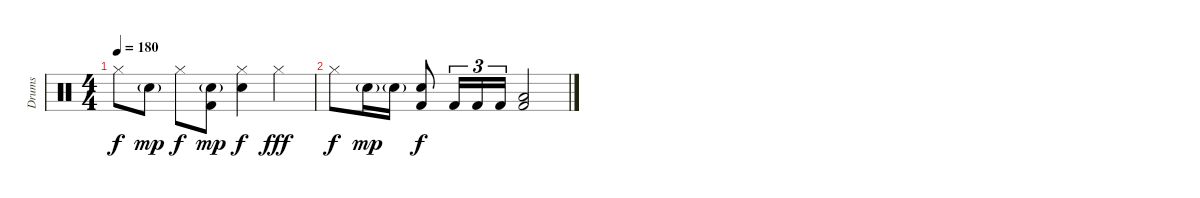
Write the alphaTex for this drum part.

\track ("Drums" "Drums") {instrument percussion}
\staff {score}
\articulation defaults
\ts (4 4)
\tempo 180
\clef neutral
\ks c "Hi-Hat (closed)".8{dy f} "Snare (hit) 2"{g}.8{dy mp} "Hi-Hat (closed)".8{dy f}
("Snare (hit) 2"{g} "Kick (hit) 2").8{dy mp} ("Hi-Hat (closed)" "Snare (hit) 2").4{dy f} "Hi-Hat (closed)".4{dy fff} |
"Hi-Hat (closed)".8{dy f} "Snare (hit) 2"{g}.16{dy mp} "Snare (hit) 2"{g}.16 ("Snare (hit) 2" "Kick (hit) 2").8{dy f} "Kick (hit) 2".16{tu (3 2)} "Kick (hit) 2".16{tu (3 2)} "Kick (hit) 2".16{tu (3 2)} ("Low Tom (hit)" "Kick (hit) 2").2
